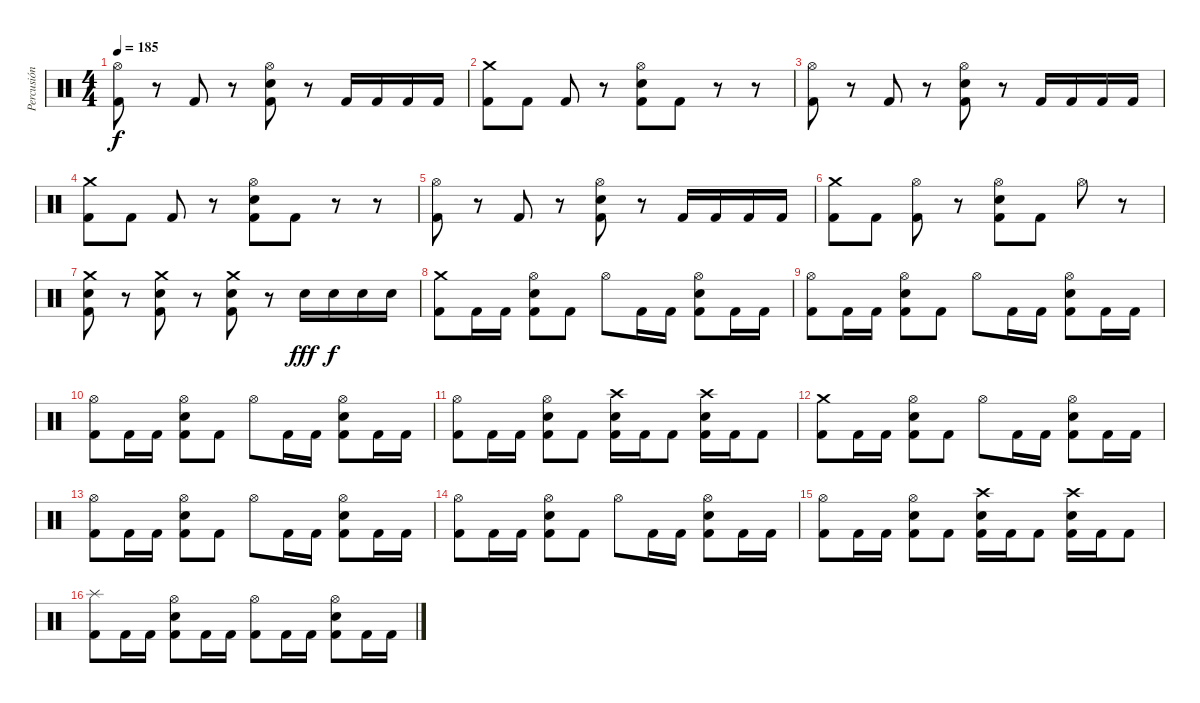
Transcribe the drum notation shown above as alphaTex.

\track ("Percusión" "Percusión") {instrument percussion}
\staff {score}
\articulation defaults
\ts (4 4)
\tempo 185
\clef neutral
\ks c
("Hi-Hat (open)" "Kick (hit) 2").8{dy f} r.8 "Kick (hit) 2".8 r.8 ("Hi-Hat (open)" "Snare (hit) 2" "Kick (hit) 2").8 r.8 "Kick (hit) 2".16 "Kick (hit) 2".16 "Kick (hit) 2".16 "Kick (hit) 2".16 |
("Crash medium (hit)" "Kick (hit) 2").8 "Kick (hit) 2".8 "Kick (hit) 2".8 r.8 ("Hi-Hat (open)" "Snare (hit) 2" "Kick (hit) 2").8 "Kick (hit) 2".8 r.8 r.8 |
("Hi-Hat (open)" "Kick (hit) 2").8 r.8 "Kick (hit) 2".8 r.8 ("Hi-Hat (open)" "Snare (hit) 2" "Kick (hit) 2").8 r.8 "Kick (hit) 2".16 "Kick (hit) 2".16 "Kick (hit) 2".16 "Kick (hit) 2".16 |
("Crash medium (hit)" "Kick (hit) 2").8 "Kick (hit) 2".8 "Kick (hit) 2".8 r.8 ("Hi-Hat (open)" "Snare (hit) 2" "Kick (hit) 2").8 "Kick (hit) 2".8 r.8 r.8 |
("Hi-Hat (open)" "Kick (hit) 2").8 r.8 "Kick (hit) 2".8 r.8 ("Hi-Hat (open)" "Snare (hit) 2" "Kick (hit) 2").8 r.8 "Kick (hit) 2".16 "Kick (hit) 2".16 "Kick (hit) 2".16 "Kick (hit) 2".16 |
("Crash medium (hit)" "Kick (hit) 2").8 "Kick (hit) 2".8 ("Hi-Hat (open)" "Kick (hit) 2").8 r.8 ("Hi-Hat (open)" "Snare (hit) 2" "Kick (hit) 2").8 "Kick (hit) 2".8 "Hi-Hat (open)".8 r.8 |
("Crash medium (hit)" "Snare (hit) 2" "Kick (hit) 2").8 r.8 ("Crash medium (hit)" "Snare (hit) 2" "Kick (hit) 2").8 r.8 ("Crash medium (hit)" "Snare (hit) 2" "Kick (hit) 2").8 r.8 "Snare (hit) 2".16{dy fff} "Snare (hit) 2".16{dy f} "Snare (hit) 2".16 "Snare (hit) 2".16 |
\section ("" "")
("Crash medium (hit)" "Kick (hit) 2").8 "Kick (hit) 2".16 "Kick (hit) 2".16 ("Hi-Hat (open)" "Snare (hit) 2" "Kick (hit) 2").8 "Kick (hit) 2".8 "Hi-Hat (open)".8 "Kick (hit) 2".16 "Kick (hit) 2".16 ("Hi-Hat (open)" "Snare (hit) 2" "Kick (hit) 2").8 "Kick (hit) 2".16 "Kick (hit) 2".16 |
("Hi-Hat (open)" "Kick (hit) 2").8 "Kick (hit) 2".16 "Kick (hit) 2".16 ("Hi-Hat (open)" "Snare (hit) 2" "Kick (hit) 2").8 "Kick (hit) 2".8 "Hi-Hat (open)".8 "Kick (hit) 2".16 "Kick (hit) 2".16 ("Hi-Hat (open)" "Snare (hit) 2" "Kick (hit) 2").8 "Kick (hit) 2".16 "Kick (hit) 2".16 |
("Hi-Hat (open)" "Kick (hit) 2").8 "Kick (hit) 2".16 "Kick (hit) 2".16 ("Hi-Hat (open)" "Snare (hit) 2" "Kick (hit) 2").8 "Kick (hit) 2".8 "Hi-Hat (open)".8 "Kick (hit) 2".16 "Kick (hit) 2".16 ("Hi-Hat (open)" "Snare (hit) 2" "Kick (hit) 2").8 "Kick (hit) 2".16 "Kick (hit) 2".16 |
("Hi-Hat (open)" "Kick (hit) 2").8 "Kick (hit) 2".16 "Kick (hit) 2".16 ("Hi-Hat (open)" "Snare (hit) 2" "Kick (hit) 2").8 "Kick (hit) 2".8 ("Crash high (hit)" "Snare (hit) 2" "Kick (hit) 2").16 "Kick (hit) 2".16 "Kick (hit) 2".8 ("Crash high (hit)" "Snare (hit) 2" "Kick (hit) 2").16 "Kick (hit) 2".16 "Kick (hit) 2".8 |
("Crash medium (hit)" "Kick (hit) 2").8 "Kick (hit) 2".16 "Kick (hit) 2".16 ("Hi-Hat (open)" "Snare (hit) 2" "Kick (hit) 2").8 "Kick (hit) 2".8 "Hi-Hat (open)".8 "Kick (hit) 2".16 "Kick (hit) 2".16 ("Hi-Hat (open)" "Snare (hit) 2" "Kick (hit) 2").8 "Kick (hit) 2".16 "Kick (hit) 2".16 |
("Hi-Hat (open)" "Kick (hit) 2").8 "Kick (hit) 2".16 "Kick (hit) 2".16 ("Hi-Hat (open)" "Snare (hit) 2" "Kick (hit) 2").8 "Kick (hit) 2".8 "Hi-Hat (open)".8 "Kick (hit) 2".16 "Kick (hit) 2".16 ("Hi-Hat (open)" "Snare (hit) 2" "Kick (hit) 2").8 "Kick (hit) 2".16 "Kick (hit) 2".16 |
("Hi-Hat (open)" "Kick (hit) 2").8 "Kick (hit) 2".16 "Kick (hit) 2".16 ("Hi-Hat (open)" "Snare (hit) 2" "Kick (hit) 2").8 "Kick (hit) 2".8 "Hi-Hat (open)".8 "Kick (hit) 2".16 "Kick (hit) 2".16 ("Hi-Hat (open)" "Snare (hit) 2" "Kick (hit) 2").8 "Kick (hit) 2".16 "Kick (hit) 2".16 |
("Hi-Hat (open)" "Kick (hit) 2").8 "Kick (hit) 2".16 "Kick (hit) 2".16 ("Hi-Hat (open)" "Snare (hit) 2" "Kick (hit) 2").8 "Kick (hit) 2".8 ("Crash high (hit)" "Snare (hit) 2" "Kick (hit) 2").16 "Kick (hit) 2".16 "Kick (hit) 2".8 ("Crash high (hit)" "Snare (hit) 2" "Kick (hit) 2").16 "Kick (hit) 2".16 "Kick (hit) 2".8 |
\section ("" "")
("Splash (hit)" "Kick (hit) 2").8 "Kick (hit) 2".16 "Kick (hit) 2".16 ("Hi-Hat (open)" "Snare (hit) 2" "Kick (hit) 2").8 "Kick (hit) 2".16 "Kick (hit) 2".16 ("Hi-Hat (open)" "Kick (hit) 2").8 "Kick (hit) 2".16 "Kick (hit) 2".16 ("Hi-Hat (open)" "Snare (hit) 2" "Kick (hit) 2").8 "Kick (hit) 2".16 "Kick (hit) 2".16
